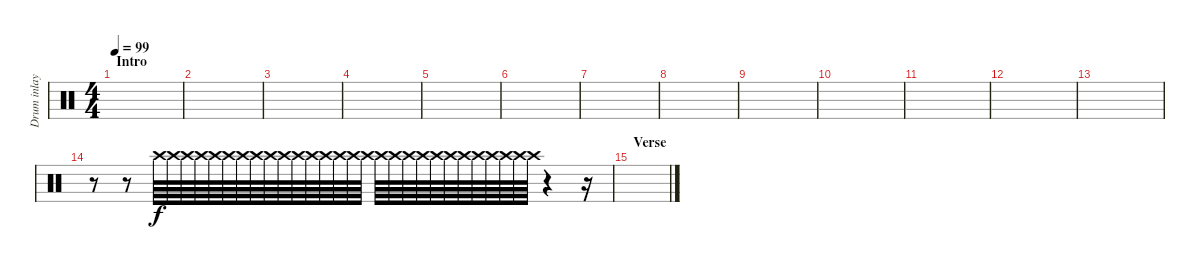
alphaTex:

\track ("Drum inlays" "Drum inlay") {instrument percussion}
\staff {score}
\articulation defaults
\ts (4 4)
\section ("" "Intro")
\tempo 99
\clef neutral
\ks c
|
|
|
|
|
|
|
|
|
|
|
|
|
r.8 r.8 "Crash high (hit)".64{volume 1} "Crash high (hit)".64 "Crash high (hit)".64{volume 2} "Crash high (hit)".64 "Crash high (hit)".64{volume 3} "Crash high (hit)".64 "Crash high (hit)".64{volume 4} "Crash high (hit)".64 "Crash high (hit)".64{volume 5} "Crash high (hit)".64 "Crash high (hit)".64{volume 6} "Crash high (hit)".64 "Crash high (hit)".64{volume 7} "Crash high (hit)".64 "Crash high (hit)".64{volume 8} "Crash high (hit)".64 "Crash high (hit)".64{volume 9} "Crash high (hit)".64 "Crash high (hit)".64{volume 9} "Crash high (hit)".64 "Crash high (hit)".64{volume 10} "Crash high (hit)".64 "Crash high (hit)".64{volume 11} "Crash high (hit)".64 "Crash high (hit)".64{volume 12} "Crash high (hit)".64 "Crash high (hit)".64 "Crash high (hit)".64 r.4 r.16 |
\section ("" "Verse")
